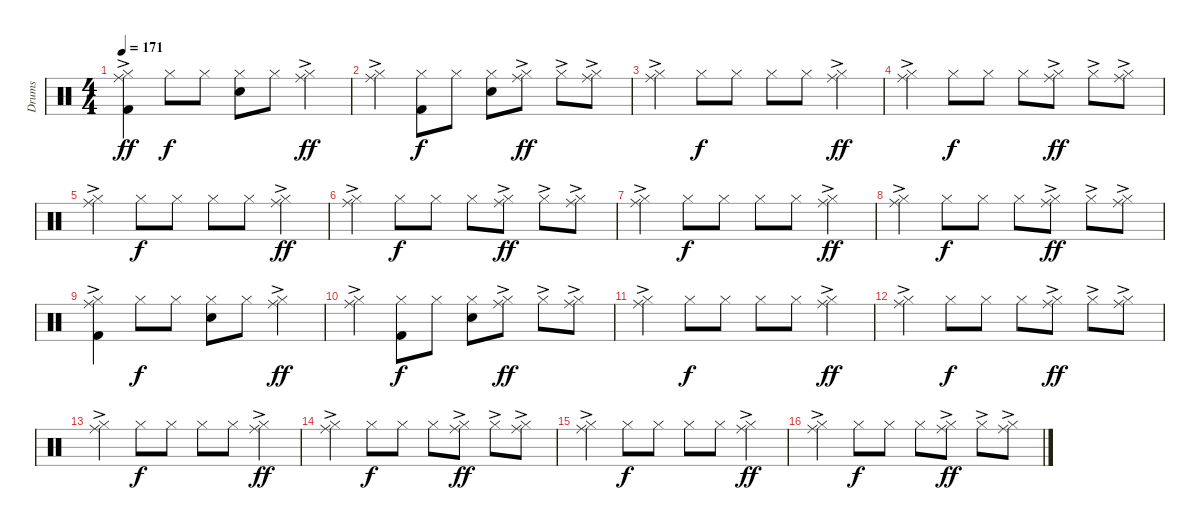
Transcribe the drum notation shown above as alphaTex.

\track ("Drums" "Drums") {instrument percussion}
\staff {score}
\articulation defaults
\ts (4 4)
\tempo 171
\clef neutral
\ks c
("Hi-Hat (closed)"{ac} "Ride (middle)" "Kick (hit) 2").4{dy ff} "Hi-Hat (closed)".8{dy f} "Hi-Hat (closed)".8 ("Hi-Hat (closed)" "Snare (hit) 2").8 "Hi-Hat (closed)".8 ("Hi-Hat (closed)"{ac} "Ride (middle)").4{dy ff} |
("Hi-Hat (closed)"{ac} "Ride (middle)").4 ("Hi-Hat (closed)" "Kick (hit) 2").8{dy f} "Hi-Hat (closed)".8 ("Hi-Hat (closed)" "Snare (hit) 2").8 ("Hi-Hat (closed)"{ac} "Ride (middle)").8{dy ff} "Hi-Hat (closed)"{ac}.8 ("Hi-Hat (closed)"{ac} "Ride (middle)").8 |
("Hi-Hat (closed)"{ac} "Ride (middle)").4 "Hi-Hat (closed)".8{dy f} "Hi-Hat (closed)".8 "Hi-Hat (closed)".8 "Hi-Hat (closed)".8 ("Hi-Hat (closed)"{ac} "Ride (middle)").4{dy ff} |
("Hi-Hat (closed)"{ac} "Ride (middle)").4 "Hi-Hat (closed)".8{dy f} "Hi-Hat (closed)".8 "Hi-Hat (closed)".8 ("Hi-Hat (closed)"{ac} "Ride (middle)").8{dy ff} "Hi-Hat (closed)"{ac}.8 ("Hi-Hat (closed)"{ac} "Ride (middle)").8 |
("Hi-Hat (closed)"{ac} "Ride (middle)").4 "Hi-Hat (closed)".8{dy f} "Hi-Hat (closed)".8 "Hi-Hat (closed)".8 "Hi-Hat (closed)".8 ("Hi-Hat (closed)"{ac} "Ride (middle)").4{dy ff} |
("Hi-Hat (closed)"{ac} "Ride (middle)").4 "Hi-Hat (closed)".8{dy f} "Hi-Hat (closed)".8 "Hi-Hat (closed)".8 ("Hi-Hat (closed)"{ac} "Ride (middle)").8{dy ff} "Hi-Hat (closed)"{ac}.8 ("Hi-Hat (closed)"{ac} "Ride (middle)").8 |
("Hi-Hat (closed)"{ac} "Ride (middle)").4 "Hi-Hat (closed)".8{dy f} "Hi-Hat (closed)".8 "Hi-Hat (closed)".8 "Hi-Hat (closed)".8 ("Hi-Hat (closed)"{ac} "Ride (middle)").4{dy ff} |
("Hi-Hat (closed)"{ac} "Ride (middle)").4 "Hi-Hat (closed)".8{dy f} "Hi-Hat (closed)".8 "Hi-Hat (closed)".8 ("Hi-Hat (closed)"{ac} "Ride (middle)").8{dy ff} "Hi-Hat (closed)"{ac}.8 ("Hi-Hat (closed)"{ac} "Ride (middle)").8 |
("Hi-Hat (closed)"{ac} "Ride (middle)" "Kick (hit) 2").4 "Hi-Hat (closed)".8{dy f} "Hi-Hat (closed)".8 ("Hi-Hat (closed)" "Snare (hit) 2").8 "Hi-Hat (closed)".8 ("Hi-Hat (closed)"{ac} "Ride (middle)").4{dy ff} |
("Hi-Hat (closed)"{ac} "Ride (middle)").4 ("Hi-Hat (closed)" "Kick (hit) 2").8{dy f} "Hi-Hat (closed)".8 ("Hi-Hat (closed)" "Snare (hit) 2").8 ("Hi-Hat (closed)"{ac} "Ride (middle)").8{dy ff} "Hi-Hat (closed)"{ac}.8 ("Hi-Hat (closed)"{ac} "Ride (middle)").8 |
("Hi-Hat (closed)"{ac} "Ride (middle)").4 "Hi-Hat (closed)".8{dy f} "Hi-Hat (closed)".8 "Hi-Hat (closed)".8 "Hi-Hat (closed)".8 ("Hi-Hat (closed)"{ac} "Ride (middle)").4{dy ff} |
("Hi-Hat (closed)"{ac} "Ride (middle)").4 "Hi-Hat (closed)".8{dy f} "Hi-Hat (closed)".8 "Hi-Hat (closed)".8 ("Hi-Hat (closed)"{ac} "Ride (middle)").8{dy ff} "Hi-Hat (closed)"{ac}.8 ("Hi-Hat (closed)"{ac} "Ride (middle)").8 |
("Hi-Hat (closed)"{ac} "Ride (middle)").4 "Hi-Hat (closed)".8{dy f} "Hi-Hat (closed)".8 "Hi-Hat (closed)".8 "Hi-Hat (closed)".8 ("Hi-Hat (closed)"{ac} "Ride (middle)").4{dy ff} |
("Hi-Hat (closed)"{ac} "Ride (middle)").4 "Hi-Hat (closed)".8{dy f} "Hi-Hat (closed)".8 "Hi-Hat (closed)".8 ("Hi-Hat (closed)"{ac} "Ride (middle)").8{dy ff} "Hi-Hat (closed)"{ac}.8 ("Hi-Hat (closed)"{ac} "Ride (middle)").8 |
("Hi-Hat (closed)"{ac} "Ride (middle)").4 "Hi-Hat (closed)".8{dy f} "Hi-Hat (closed)".8 "Hi-Hat (closed)".8 "Hi-Hat (closed)".8 ("Hi-Hat (closed)"{ac} "Ride (middle)").4{dy ff} |
("Hi-Hat (closed)"{ac} "Ride (middle)").4 "Hi-Hat (closed)".8{dy f} "Hi-Hat (closed)".8 "Hi-Hat (closed)".8 ("Hi-Hat (closed)"{ac} "Ride (middle)").8{dy ff} "Hi-Hat (closed)"{ac}.8 ("Hi-Hat (closed)"{ac} "Ride (middle)").8
